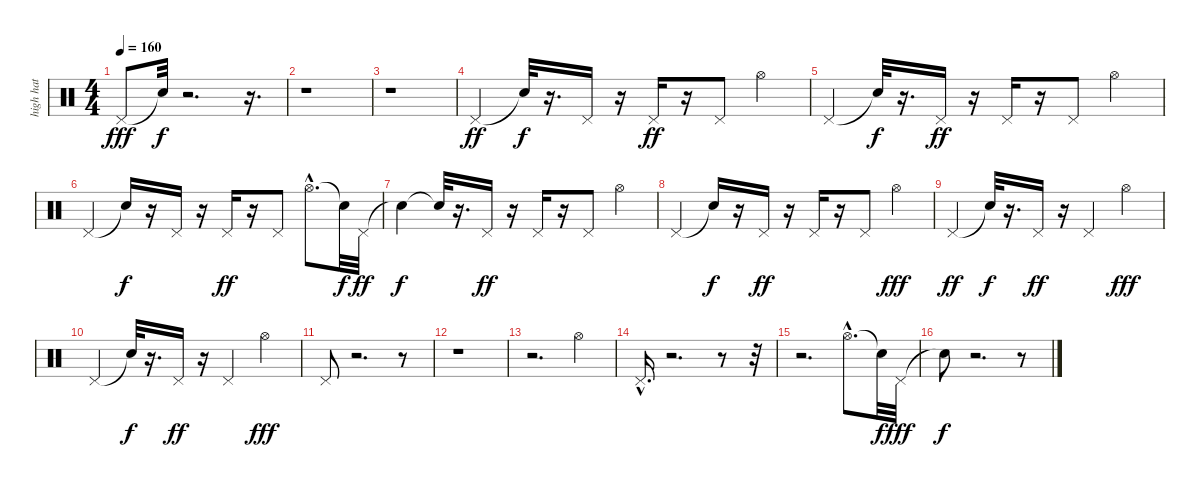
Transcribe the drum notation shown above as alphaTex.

\track ("high hat" "high hat") {instrument percussion}
\staff {score}
\articulation defaults
\ts (4 4)
\tempo 160
\clef neutral
\ks c "Pedal Hi-Hat (hit)".8{dy fff} "Snare (hit)"{t}.32{dy f}
r.2{d} r.16{d} |
r.1 |
r.1 |
"Pedal Hi-Hat (hit)".4{dy ff} "Snare (hit)"{t}.32{dy f} r.16{d} "Pedal Hi-Hat (hit)".16 r.16 "Pedal Hi-Hat (hit)".16{dy ff} r.16 "Pedal Hi-Hat (hit)".8 "Hi-Hat (open)".4 |
"Pedal Hi-Hat (hit)".4 "Snare (hit)"{t}.32{dy f} r.16{d} "Pedal Hi-Hat (hit)".16{dy ff} r.16 "Pedal Hi-Hat (hit)".16 r.16 "Pedal Hi-Hat (hit)".8 "Hi-Hat (open)".4 |
"Pedal Hi-Hat (hit)".4 "Snare (hit)"{t}.16{dy f} r.16 "Pedal Hi-Hat (hit)".16 r.16 "Pedal Hi-Hat (hit)".16{dy ff} r.16 "Pedal Hi-Hat (hit)".8 "Hi-Hat (open)"{hac}.8{d} "Snare (hit)"{t}.32{dy f} "Pedal Hi-Hat (hit)".32{dy ff} |
"Snare (hit)"{t}.4{dy f} "Snare (hit)"{t}.32 r.16{d} "Pedal Hi-Hat (hit)".16{dy ff} r.16 "Pedal Hi-Hat (hit)".16 r.16 "Pedal Hi-Hat (hit)".8 "Hi-Hat (open)".4 |
"Pedal Hi-Hat (hit)".4 "Snare (hit)"{t}.16{dy f} r.16 "Pedal Hi-Hat (hit)".16{dy ff} r.16 "Pedal Hi-Hat (hit)".16 r.16 "Pedal Hi-Hat (hit)".8 "Hi-Hat (open)".4{dy fff} |
"Pedal Hi-Hat (hit)".4{dy ff} "Snare (hit)"{t}.32{dy f} r.16{d} "Pedal Hi-Hat (hit)".16{dy ff} r.16 "Pedal Hi-Hat (hit)".4 "Hi-Hat (open)".4{dy fff} |
"Pedal Hi-Hat (hit)".4 "Snare (hit)"{t}.32{dy f} r.16{d} "Pedal Hi-Hat (hit)".16{dy ff} r.16 "Pedal Hi-Hat (hit)".4 "Hi-Hat (open)".4{dy fff} |
"Pedal Hi-Hat (hit)".8 r.2{d} r.8 |
r.1 |
r.2{d} "Hi-Hat (open)".4 |
"Pedal Hi-Hat (hit)"{hac}.16{d} r.2{d} r.8 r.32 |
r.2{d} "Hi-Hat (open)"{hac}.8{d} "Snare (hit)"{t}.32{dy f} "Pedal Hi-Hat (hit)".32{dy fff} |
"Snare (hit)"{t}.8{dy f} r.2{d} r.8
